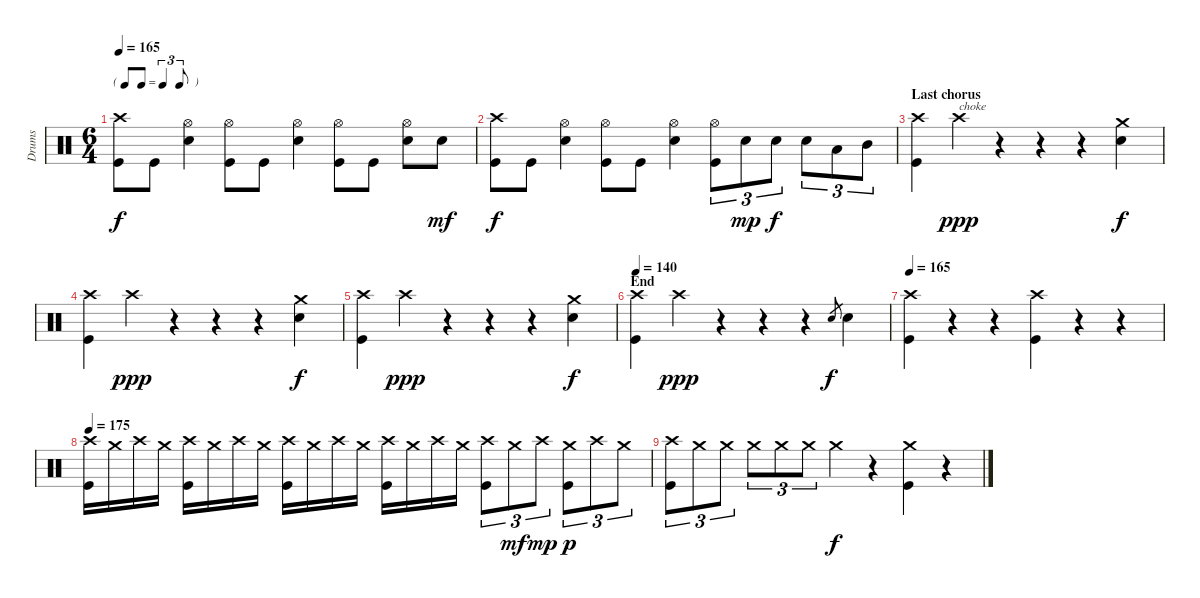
\track ("Drums" "Drums") {instrument percussion}
\staff {score}
\articulation defaults
\ts (6 4)
\tf triplet8th
\tempo 165
\clef neutral
\ks c
("Crash high (hit)" "Kick (hit)").8{dy f} "Kick (hit)".8 ("Hi-Hat (open)" "Electric Snare (hit)").4 ("Hi-Hat (open)" "Kick (hit)").8 "Kick (hit)".8 ("Hi-Hat (open)" "Electric Snare (hit)").4 ("Hi-Hat (open)" "Kick (hit)").8 "Kick (hit)".8 ("Hi-Hat (open)" "Electric Snare (hit)").8 "Electric Snare (hit)".8{dy mf} |
("Crash high (hit)" "Kick (hit)").8{dy f} "Kick (hit)".8 ("Hi-Hat (open)" "Electric Snare (hit)").4 ("Hi-Hat (open)" "Kick (hit)").8 "Kick (hit)".8 ("Hi-Hat (open)" "Electric Snare (hit)").4 ("Hi-Hat (open)" "Kick (hit)").8{tu (3 2)} "Electric Snare (hit)".8{tu (3 2) dy mp} "Electric Snare (hit)".8{tu (3 2) dy f} "Electric Snare (hit)".8{tu (3 2)} "Low Tom (hit)".8{tu (3 2)} "Mid Tom (hit)".8{tu (3 2)} |
\section ("" "Last chorus")
("Crash high (hit)" "Kick (hit)").4 "Crash high (hit)".4{txt "choke" dy ppp} r.4 r.4 r.4 ("Crash medium (hit)" "Electric Snare (hit)").4{dy f} |
("Crash high (hit)" "Kick (hit)").4 "Crash high (hit)".4{dy ppp} r.4 r.4 r.4 ("Crash medium (hit)" "Electric Snare (hit)").4{dy f} |
("Crash high (hit)" "Kick (hit)").4 "Crash high (hit)".4{dy ppp} r.4 r.4 r.4 ("Crash medium (hit)" "Electric Snare (hit)").4{dy f} |
\section ("" "End")
\tempo 140
("Crash high (hit)" "Kick (hit)").4 "Crash high (hit)".4{dy ppp} r.4 r.4 r.4 "Electric Snare (hit)".8{gr dy f} "Electric Snare (hit)".4 |
\tempo 165
("Crash high (hit)" "Kick (hit)").4 r.4 r.4 ("Crash high (hit)" "Kick (hit)").4 r.4 r.4 |
\tempo 175
("Crash high (hit)" "Kick (hit)").16 "Crash medium (hit)".16 "Crash high (hit)".16 "Crash medium (hit)".16 ("Crash high (hit)" "Kick (hit)").16 "Crash medium (hit)".16 "Crash high (hit)".16 "Crash medium (hit)".16 ("Crash high (hit)" "Kick (hit)").16 "Crash medium (hit)".16 "Crash high (hit)".16 "Crash medium (hit)".16 ("Crash high (hit)" "Kick (hit)").16 "Crash medium (hit)".16 "Crash high (hit)".16 "Crash medium (hit)".16 ("Crash high (hit)" "Kick (hit)").8{tu (3 2)} "Crash medium (hit)".8{tu (3 2) dy mf} "Crash high (hit)".8{tu (3 2) dy mp} ("Crash medium (hit)" "Kick (hit)").8{tu (3 2) dy p} "Crash high (hit)".8{tu (3 2)} "Crash medium (hit)".8{tu (3 2)} |
("Crash high (hit)" "Kick (hit)").8{tu (3 2)} "Crash medium (hit)".8{tu (3 2)} "Crash medium (hit)".8{tu (3 2)} "Crash medium (hit)".8{tu (3 2)} "Crash medium (hit)".8{tu (3 2)} "Crash medium (hit)".8{tu (3 2)} "Crash medium (hit)".4{dy f} r.4 ("Crash medium (hit)" "Kick (hit)").4 r.4
